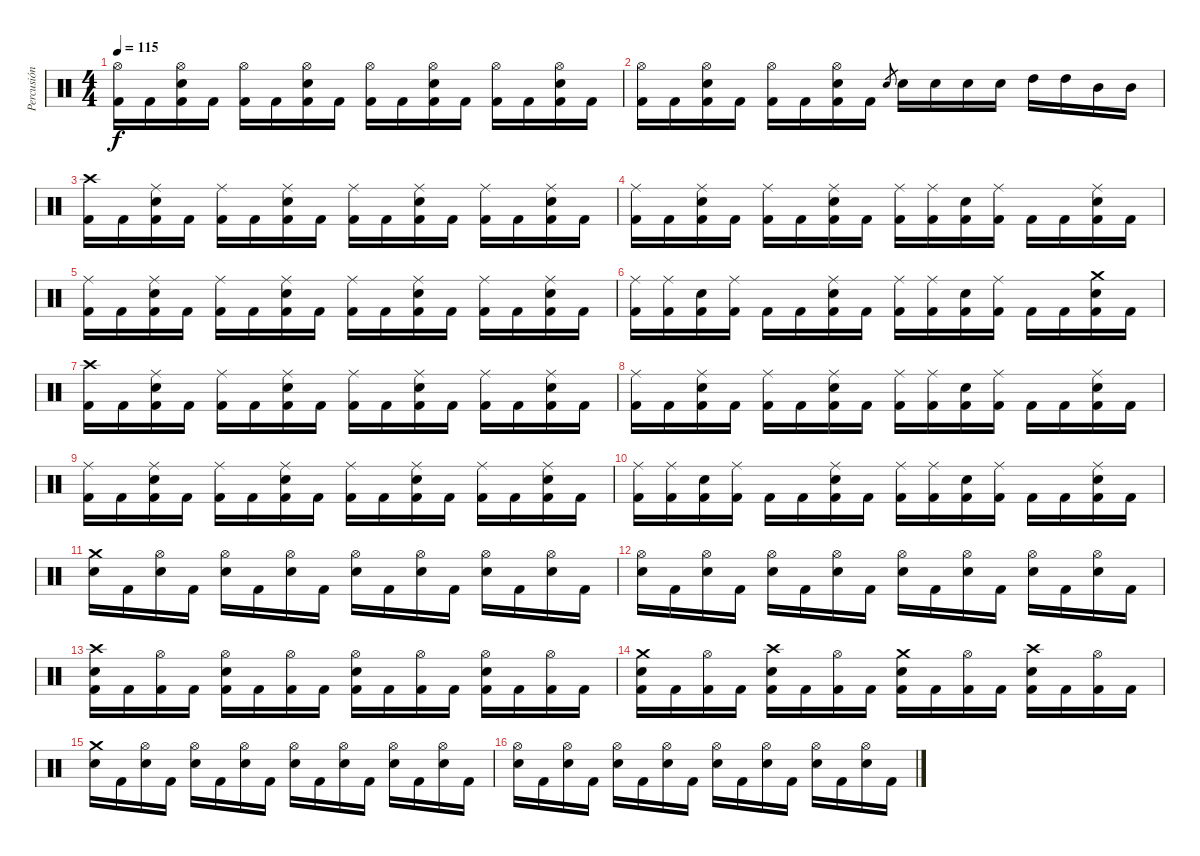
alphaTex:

\track ("Percusión" "Percusión") {instrument percussion}
\staff {score}
\articulation defaults
\ts (4 4)
\tempo 115
\clef neutral
\ks c
("Hi-Hat (open)" "Kick (hit) 2").16{dy f} "Kick (hit) 2".16 ("Hi-Hat (open)" "Snare (hit) 2" "Kick (hit) 2").16 "Kick (hit) 2".16 ("Hi-Hat (open)" "Kick (hit) 2").16 "Kick (hit) 2".16 ("Hi-Hat (open)" "Snare (hit) 2" "Kick (hit) 2").16 "Kick (hit) 2".16 ("Hi-Hat (open)" "Kick (hit) 2").16 "Kick (hit) 2".16 ("Hi-Hat (open)" "Snare (hit) 2" "Kick (hit) 2").16 "Kick (hit) 2".16 ("Hi-Hat (open)" "Kick (hit) 2").16 "Kick (hit) 2".16 ("Hi-Hat (open)" "Snare (hit) 2" "Kick (hit) 2").16 "Kick (hit) 2".16 |
("Hi-Hat (open)" "Kick (hit) 2").16 "Kick (hit) 2".16 ("Hi-Hat (open)" "Snare (hit) 2" "Kick (hit) 2").16 "Kick (hit) 2".16 ("Hi-Hat (open)" "Kick (hit) 2").16 "Kick (hit) 2".16 ("Hi-Hat (open)" "Snare (hit) 2" "Kick (hit) 2").16 "Kick (hit) 2".16 "Snare (hit) 2".8{gr} "Snare (hit) 2".16 "Snare (hit) 2".16 "Snare (hit) 2".16 "Snare (hit) 2".16 "High Tom (hit)".16 "High Tom (hit)".16 "Mid Tom (hit)".16 "Mid Tom (hit)".16 |
("Crash high (hit)" "Kick (hit) 2").16 "Kick (hit) 2".16 ("Ride (middle)" "Snare (hit) 2" "Kick (hit) 2").16 "Kick (hit) 2".16 ("Ride (middle)" "Kick (hit) 2").16 "Kick (hit) 2".16 ("Ride (middle)" "Snare (hit) 2" "Kick (hit) 2").16 "Kick (hit) 2".16 ("Ride (middle)" "Kick (hit) 2").16 "Kick (hit) 2".16 ("Ride (middle)" "Snare (hit) 2" "Kick (hit) 2").16 "Kick (hit) 2".16 ("Ride (middle)" "Kick (hit) 2").16 "Kick (hit) 2".16 ("Ride (middle)" "Snare (hit) 2" "Kick (hit) 2").16 "Kick (hit) 2".16 |
("Ride (middle)" "Kick (hit) 2").16 "Kick (hit) 2".16 ("Ride (middle)" "Snare (hit) 2" "Kick (hit) 2").16 "Kick (hit) 2".16 ("Ride (middle)" "Kick (hit) 2").16 "Kick (hit) 2".16 ("Ride (middle)" "Snare (hit) 2" "Kick (hit) 2").16 "Kick (hit) 2".16 ("Ride (middle)" "Kick (hit) 2").16 ("Ride (middle)" "Kick (hit) 2").16 ("Snare (hit) 2" "Kick (hit) 2").16 ("Ride (middle)" "Kick (hit) 2").16 "Kick (hit) 2".16 "Kick (hit) 2".16 ("Ride (middle)" "Snare (hit) 2" "Kick (hit) 2").16 "Kick (hit) 2".16 |
("Ride (middle)" "Kick (hit) 2").16 "Kick (hit) 2".16 ("Ride (middle)" "Snare (hit) 2" "Kick (hit) 2").16 "Kick (hit) 2".16 ("Ride (middle)" "Kick (hit) 2").16 "Kick (hit) 2".16 ("Ride (middle)" "Snare (hit) 2" "Kick (hit) 2").16 "Kick (hit) 2".16 ("Ride (middle)" "Kick (hit) 2").16 "Kick (hit) 2".16 ("Ride (middle)" "Snare (hit) 2" "Kick (hit) 2").16 "Kick (hit) 2".16 ("Ride (middle)" "Kick (hit) 2").16 "Kick (hit) 2".16 ("Ride (middle)" "Snare (hit) 2" "Kick (hit) 2").16 "Kick (hit) 2".16 |
("Ride (middle)" "Kick (hit) 2").16 ("Ride (middle)" "Kick (hit) 2").16 ("Snare (hit) 2" "Kick (hit) 2").16 ("Ride (middle)" "Kick (hit) 2").16 "Kick (hit) 2".16 "Kick (hit) 2".16 ("Ride (middle)" "Snare (hit) 2" "Kick (hit) 2").16 "Kick (hit) 2".16 ("Ride (middle)" "Kick (hit) 2").16 ("Ride (middle)" "Kick (hit) 2").16 ("Snare (hit) 2" "Kick (hit) 2").16 ("Ride (middle)" "Kick (hit) 2").16 "Kick (hit) 2".16 "Kick (hit) 2".16 ("Crash medium (hit)" "Snare (hit) 2" "Kick (hit) 2").16 "Kick (hit) 2".16 |
("Crash high (hit)" "Kick (hit) 2").16 "Kick (hit) 2".16 ("Ride (middle)" "Snare (hit) 2" "Kick (hit) 2").16 "Kick (hit) 2".16 ("Ride (middle)" "Kick (hit) 2").16 "Kick (hit) 2".16 ("Ride (middle)" "Snare (hit) 2" "Kick (hit) 2").16 "Kick (hit) 2".16 ("Ride (middle)" "Kick (hit) 2").16 "Kick (hit) 2".16 ("Ride (middle)" "Snare (hit) 2" "Kick (hit) 2").16 "Kick (hit) 2".16 ("Ride (middle)" "Kick (hit) 2").16 "Kick (hit) 2".16 ("Ride (middle)" "Snare (hit) 2" "Kick (hit) 2").16 "Kick (hit) 2".16 |
("Ride (middle)" "Kick (hit) 2").16 "Kick (hit) 2".16 ("Ride (middle)" "Snare (hit) 2" "Kick (hit) 2").16 "Kick (hit) 2".16 ("Ride (middle)" "Kick (hit) 2").16 "Kick (hit) 2".16 ("Ride (middle)" "Snare (hit) 2" "Kick (hit) 2").16 "Kick (hit) 2".16 ("Ride (middle)" "Kick (hit) 2").16 ("Ride (middle)" "Kick (hit) 2").16 ("Snare (hit) 2" "Kick (hit) 2").16 ("Ride (middle)" "Kick (hit) 2").16 "Kick (hit) 2".16 "Kick (hit) 2".16 ("Ride (middle)" "Snare (hit) 2" "Kick (hit) 2").16 "Kick (hit) 2".16 |
("Ride (middle)" "Kick (hit) 2").16 "Kick (hit) 2".16 ("Ride (middle)" "Snare (hit) 2" "Kick (hit) 2").16 "Kick (hit) 2".16 ("Ride (middle)" "Kick (hit) 2").16 "Kick (hit) 2".16 ("Ride (middle)" "Snare (hit) 2" "Kick (hit) 2").16 "Kick (hit) 2".16 ("Ride (middle)" "Kick (hit) 2").16 "Kick (hit) 2".16 ("Ride (middle)" "Snare (hit) 2" "Kick (hit) 2").16 "Kick (hit) 2".16 ("Ride (middle)" "Kick (hit) 2").16 "Kick (hit) 2".16 ("Ride (middle)" "Snare (hit) 2" "Kick (hit) 2").16 "Kick (hit) 2".16 |
("Ride (middle)" "Kick (hit) 2").16 ("Ride (middle)" "Kick (hit) 2").16 ("Snare (hit) 2" "Kick (hit) 2").16 ("Ride (middle)" "Kick (hit) 2").16 "Kick (hit) 2".16 "Kick (hit) 2".16 ("Ride (middle)" "Snare (hit) 2" "Kick (hit) 2").16 "Kick (hit) 2".16 ("Ride (middle)" "Kick (hit) 2").16 ("Ride (middle)" "Kick (hit) 2").16 ("Snare (hit) 2" "Kick (hit) 2").16 ("Ride (middle)" "Kick (hit) 2").16 "Kick (hit) 2".16 "Kick (hit) 2".16 ("Ride (middle)" "Snare (hit) 2" "Kick (hit) 2").16 "Kick (hit) 2".16 |
("Crash medium (hit)" "Snare (hit) 2").16 "Kick (hit) 2".16 ("Hi-Hat (open)" "Snare (hit) 2").16 "Kick (hit) 2".16 ("Hi-Hat (open)" "Snare (hit) 2").16 "Kick (hit) 2".16 ("Hi-Hat (open)" "Snare (hit) 2").16 "Kick (hit) 2".16 ("Hi-Hat (open)" "Snare (hit) 2").16 "Kick (hit) 2".16 ("Hi-Hat (open)" "Snare (hit) 2").16 "Kick (hit) 2".16 ("Hi-Hat (open)" "Snare (hit) 2").16 "Kick (hit) 2".16 ("Hi-Hat (open)" "Snare (hit) 2").16 "Kick (hit) 2".16 |
("Hi-Hat (open)" "Snare (hit) 2").16 "Kick (hit) 2".16 ("Hi-Hat (open)" "Snare (hit) 2").16 "Kick (hit) 2".16 ("Hi-Hat (open)" "Snare (hit) 2").16 "Kick (hit) 2".16 ("Hi-Hat (open)" "Snare (hit) 2").16 "Kick (hit) 2".16 ("Hi-Hat (open)" "Snare (hit) 2").16 "Kick (hit) 2".16 ("Hi-Hat (open)" "Snare (hit) 2").16 "Kick (hit) 2".16 ("Hi-Hat (open)" "Snare (hit) 2").16 "Kick (hit) 2".16 ("Hi-Hat (open)" "Snare (hit) 2").16 "Kick (hit) 2".16 |
("Crash high (hit)" "Snare (hit) 2" "Kick (hit) 2").16 "Kick (hit) 2".16 ("Hi-Hat (open)" "Kick (hit) 2").16 "Kick (hit) 2".16 ("Hi-Hat (open)" "Snare (hit) 2" "Kick (hit) 2").16 "Kick (hit) 2".16 ("Hi-Hat (open)" "Kick (hit) 2").16 "Kick (hit) 2".16 ("Hi-Hat (open)" "Snare (hit) 2" "Kick (hit) 2").16 "Kick (hit) 2".16 ("Hi-Hat (open)" "Kick (hit) 2").16 "Kick (hit) 2".16 ("Hi-Hat (open)" "Snare (hit) 2" "Kick (hit) 2").16 "Kick (hit) 2".16 ("Hi-Hat (open)" "Kick (hit) 2").16 "Kick (hit) 2".16 |
("Crash medium (hit)" "Snare (hit) 2" "Kick (hit) 2").16 "Kick (hit) 2".16 ("Hi-Hat (open)" "Kick (hit) 2").16 "Kick (hit) 2".16 ("Crash high (hit)" "Snare (hit) 2" "Kick (hit) 2").16 "Kick (hit) 2".16 ("Hi-Hat (open)" "Kick (hit) 2").16 "Kick (hit) 2".16 ("Crash medium (hit)" "Snare (hit) 2" "Kick (hit) 2").16 "Kick (hit) 2".16 ("Hi-Hat (open)" "Kick (hit) 2").16 "Kick (hit) 2".16 ("Crash high (hit)" "Snare (hit) 2" "Kick (hit) 2").16 "Kick (hit) 2".16 ("Hi-Hat (open)" "Kick (hit) 2").16 "Kick (hit) 2".16 |
("Crash medium (hit)" "Snare (hit) 2").16 "Kick (hit) 2".16 ("Hi-Hat (open)" "Snare (hit) 2").16 "Kick (hit) 2".16 ("Hi-Hat (open)" "Snare (hit) 2").16 "Kick (hit) 2".16 ("Hi-Hat (open)" "Snare (hit) 2").16 "Kick (hit) 2".16 ("Hi-Hat (open)" "Snare (hit) 2").16 "Kick (hit) 2".16 ("Hi-Hat (open)" "Snare (hit) 2").16 "Kick (hit) 2".16 ("Hi-Hat (open)" "Snare (hit) 2").16 "Kick (hit) 2".16 ("Hi-Hat (open)" "Snare (hit) 2").16 "Kick (hit) 2".16 |
("Hi-Hat (open)" "Snare (hit) 2").16 "Kick (hit) 2".16 ("Hi-Hat (open)" "Snare (hit) 2").16 "Kick (hit) 2".16 ("Hi-Hat (open)" "Snare (hit) 2").16 "Kick (hit) 2".16 ("Hi-Hat (open)" "Snare (hit) 2").16 "Kick (hit) 2".16 ("Hi-Hat (open)" "Snare (hit) 2").16 "Kick (hit) 2".16 ("Hi-Hat (open)" "Snare (hit) 2").16 "Kick (hit) 2".16 ("Hi-Hat (open)" "Snare (hit) 2").16 "Kick (hit) 2".16 ("Hi-Hat (open)" "Snare (hit) 2").16 "Kick (hit) 2".16
